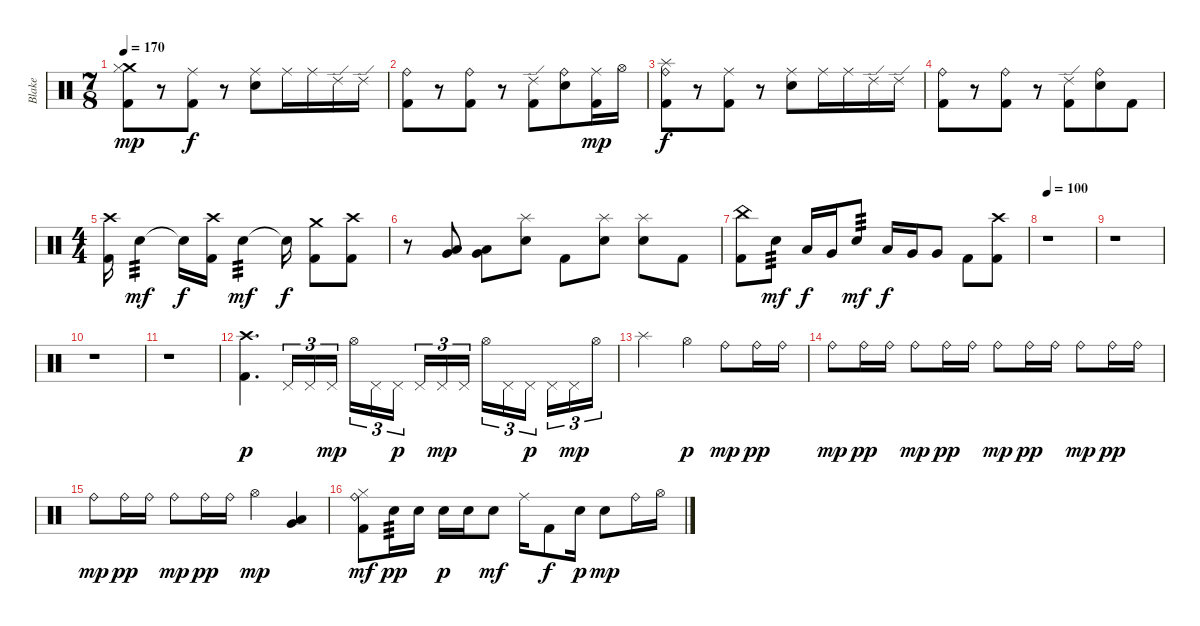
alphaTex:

\track ("Blake" "Blake") {instrument percussion}
\staff {score}
\articulation defaults
\ts (7 8)
\tempo 170
\clef neutral
\ks c
("Crash medium (hit)" "Hi-Hat (closed)" "Kick (hit) 2").8{dy mp} r.8 ("Ride (middle)" "Kick (hit) 2").8{dy f} r.8 ("Ride (middle)" "Snare (hit) 2").8 "Ride (middle)".16 "Ride (middle)".16 "Ride (edge) 2".16 "Ride (edge) 2".16 |
("Ride (bell)" "Kick (hit) 2").8 r.8 ("Ride (bell)" "Kick (hit) 2").8 r.8 ("Ride (edge) 2" "Kick (hit) 2").8 ("Ride (bell)" "Snare (hit) 2").8 ("Ride (middle)" "Kick (hit) 2").16{dy mp} "Hi-Hat (open)".16 |
("Splash (hit)" "Ride (bell)" "Kick (hit) 2").8{dy f} r.8 ("Ride (middle)" "Kick (hit) 2").8 r.8 ("Ride (middle)" "Snare (hit) 2").8 "Ride (middle)".16 "Ride (middle)".16 "Ride (edge) 2".16 "Ride (edge) 2".16 |
("Ride (bell)" "Kick (hit) 2").8 r.8 ("Ride (bell)" "Kick (hit) 2").8 r.8 ("Ride (edge) 2" "Kick (hit) 2").8 ("Ride (bell)" "Snare (hit) 2").8 "Kick (hit) 2".8 |
\ts (4 4)
("Crash high (hit)" "Kick (hit) 2").16 "Snare (hit) 2".4{tp 3 dy mf} "Snare (hit) 2"{t}.16{dy f} ("Crash high (hit)" "Kick (hit) 2").16 "Snare (hit) 2".4{tp 3 dy mf} "Snare (hit) 2"{t}.16{dy f} ("Crash medium (hit)" "Kick (hit) 2").8 ("Crash high (hit)" "Kick (hit) 2").8 |
r.8 ("Low Tom (hit)" "Very Low Tom (hit)").8 ("Low Tom (hit)" "Very Low Tom (hit)").8 ("Splash (hit)" "Snare (hit) 2").8 "Kick (hit) 2".8 ("Splash (hit)" "Snare (hit) 2").8 ("Splash (hit)" "Snare (hit) 2").8 "Kick (hit) 2".8 |
("China (hit)" "Kick (hit) 2").8 "Snare (hit) 2".8{tp 3 dy mf} "Low Tom (hit)".16{dy f} "Very Low Tom (hit)".16 "Snare (hit) 2".8{tp 3 dy mf} "Low Tom (hit)".16{dy f} "Very Low Tom (hit)".16 "Very Low Tom (hit)".8 "Kick (hit) 2".8 ("Crash high (hit)" "Kick (hit) 2").8 |
\tempo 100
r.1 |
r.1 |
r.1 |
r.1 |
("Crash high (hit)" "Kick (hit) 2").4{d dy p} "Pedal Hi-Hat (hit)".16{tu (3 2)} "Pedal Hi-Hat (hit)".16{tu (3 2)} "Pedal Hi-Hat (hit)".16{tu (3 2) dy mp} "Hi-Hat (open)".16{tu (3 2)} "Pedal Hi-Hat (hit)".16{tu (3 2)} "Pedal Hi-Hat (hit)".16{tu (3 2) dy p beam splitsecondary} "Pedal Hi-Hat (hit)".16{tu (3 2)} "Pedal Hi-Hat (hit)".16{tu (3 2) dy mp} "Pedal Hi-Hat (hit)".16{tu (3 2)} "Hi-Hat (open)".16{tu (3 2)} "Pedal Hi-Hat (hit)".16{tu (3 2)} "Pedal Hi-Hat (hit)".16{tu (3 2) dy p beam splitsecondary} "Pedal Hi-Hat (hit)".16{tu (3 2)} "Pedal Hi-Hat (hit)".16{tu (3 2) dy mp} "Hi-Hat (open)".16{tu (3 2)} |
"Splash (hit)".2 "Hi-Hat (open)".4{dy p} "Ride (bell)".8{dy mp} "Ride (bell)".16{dy pp} "Ride (bell)".16 |
"Ride (bell)".8{dy mp} "Ride (bell)".16{dy pp} "Ride (bell)".16 "Ride (bell)".8{dy mp} "Ride (bell)".16{dy pp} "Ride (bell)".16 "Ride (bell)".8{dy mp} "Ride (bell)".16{dy pp} "Ride (bell)".16 "Ride (bell)".8{dy mp} "Ride (bell)".16{dy pp} "Ride (bell)".16 |
"Ride (bell)".8{dy mp} "Ride (bell)".16{dy pp} "Ride (bell)".16 "Ride (bell)".8{dy mp} "Ride (bell)".16{dy pp} "Ride (bell)".16 "Hi-Hat (open)".4{dy mp} ("Very Low Tom (hit)" "Low Tom (hit)").4 |
("Ride (bell)" "Hi-Hat (closed)" "Kick (hit) 2").8{dy mf} "Snare (hit) 2".16{tp 3 dy pp} "Snare (hit) 2".16 "Snare (hit) 2".16{dy p} "Snare (hit) 2".16 "Snare (hit) 2".8{dy mf} "Ride (middle)".16 "Kick (hit) 2".8{dy f} "Snare (hit) 2".16{dy p} "Snare (hit) 2".8{dy mp} "Ride (bell)".16 "Hi-Hat (open)".16
